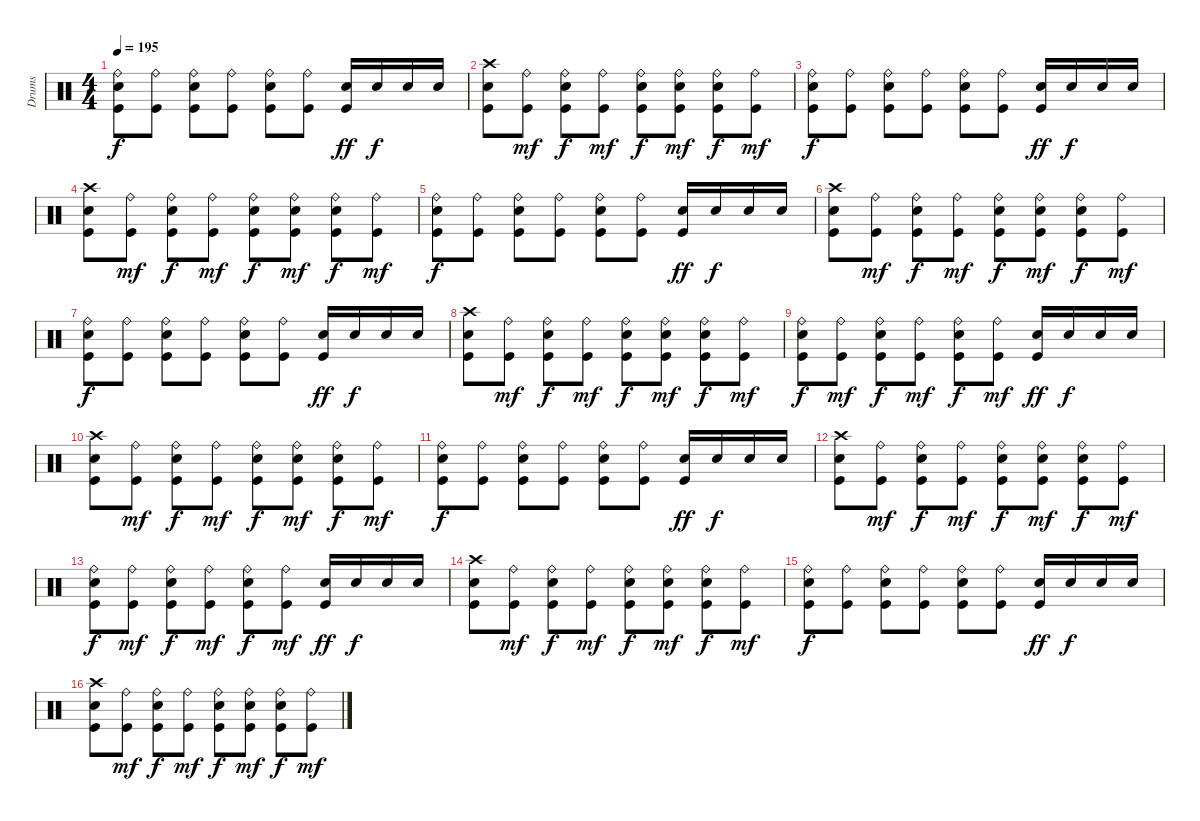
\track ("Drums" "Drums") {instrument percussion}
\staff {score}
\articulation defaults
\ts (4 4)
\tempo 195
\clef neutral
\ks c
("Ride (bell)" "Electric Snare (hit)" "Kick (hit)").8{dy f} ("Ride (bell)" "Kick (hit)").8 ("Ride (bell)" "Electric Snare (hit)" "Kick (hit)").8 ("Ride (bell)" "Kick (hit)").8 ("Ride (bell)" "Electric Snare (hit)" "Kick (hit)").8 ("Ride (bell)" "Kick (hit)").8 ("Electric Snare (hit)" "Kick (hit)").16{dy ff} "Electric Snare (hit)".16{dy f} "Electric Snare (hit)".16 "Electric Snare (hit)".16 |
("Crash high (hit)" "Electric Snare (hit)" "Kick (hit)").8 ("Ride (bell)" "Kick (hit)").8{dy mf} ("Ride (bell)" "Electric Snare (hit)" "Kick (hit)").8{dy f} ("Ride (bell)" "Kick (hit)").8{dy mf} ("Ride (bell)" "Electric Snare (hit)" "Kick (hit)").8{dy f} ("Ride (bell)" "Electric Snare (hit)" "Kick (hit)").8{dy mf} ("Ride (bell)" "Electric Snare (hit)" "Kick (hit)").8{dy f} ("Ride (bell)" "Kick (hit)").8{dy mf} |
("Ride (bell)" "Electric Snare (hit)" "Kick (hit)").8{dy f} ("Ride (bell)" "Kick (hit)").8 ("Ride (bell)" "Electric Snare (hit)" "Kick (hit)").8 ("Ride (bell)" "Kick (hit)").8 ("Ride (bell)" "Electric Snare (hit)" "Kick (hit)").8 ("Ride (bell)" "Kick (hit)").8 ("Electric Snare (hit)" "Kick (hit)").16{dy ff} "Electric Snare (hit)".16{dy f} "Electric Snare (hit)".16 "Electric Snare (hit)".16 |
("Crash high (hit)" "Electric Snare (hit)" "Kick (hit)").8 ("Ride (bell)" "Kick (hit)").8{dy mf} ("Ride (bell)" "Electric Snare (hit)" "Kick (hit)").8{dy f} ("Ride (bell)" "Kick (hit)").8{dy mf} ("Ride (bell)" "Electric Snare (hit)" "Kick (hit)").8{dy f} ("Ride (bell)" "Electric Snare (hit)" "Kick (hit)").8{dy mf} ("Ride (bell)" "Electric Snare (hit)" "Kick (hit)").8{dy f} ("Ride (bell)" "Kick (hit)").8{dy mf} |
("Ride (bell)" "Electric Snare (hit)" "Kick (hit)").8{dy f} ("Ride (bell)" "Kick (hit)").8 ("Ride (bell)" "Electric Snare (hit)" "Kick (hit)").8 ("Ride (bell)" "Kick (hit)").8 ("Ride (bell)" "Electric Snare (hit)" "Kick (hit)").8 ("Ride (bell)" "Kick (hit)").8 ("Electric Snare (hit)" "Kick (hit)").16{dy ff} "Electric Snare (hit)".16{dy f} "Electric Snare (hit)".16 "Electric Snare (hit)".16 |
("Crash high (hit)" "Electric Snare (hit)" "Kick (hit)").8 ("Ride (bell)" "Kick (hit)").8{dy mf} ("Ride (bell)" "Electric Snare (hit)" "Kick (hit)").8{dy f} ("Ride (bell)" "Kick (hit)").8{dy mf} ("Ride (bell)" "Electric Snare (hit)" "Kick (hit)").8{dy f} ("Ride (bell)" "Electric Snare (hit)" "Kick (hit)").8{dy mf} ("Ride (bell)" "Electric Snare (hit)" "Kick (hit)").8{dy f} ("Ride (bell)" "Kick (hit)").8{dy mf} |
("Ride (bell)" "Electric Snare (hit)" "Kick (hit)").8{dy f} ("Ride (bell)" "Kick (hit)").8 ("Ride (bell)" "Electric Snare (hit)" "Kick (hit)").8 ("Ride (bell)" "Kick (hit)").8 ("Ride (bell)" "Electric Snare (hit)" "Kick (hit)").8 ("Ride (bell)" "Kick (hit)").8 ("Electric Snare (hit)" "Kick (hit)").16{dy ff} "Electric Snare (hit)".16{dy f} "Electric Snare (hit)".16 "Electric Snare (hit)".16 |
("Crash high (hit)" "Electric Snare (hit)" "Kick (hit)").8 ("Ride (bell)" "Kick (hit)").8{dy mf} ("Ride (bell)" "Electric Snare (hit)" "Kick (hit)").8{dy f} ("Ride (bell)" "Kick (hit)").8{dy mf} ("Ride (bell)" "Electric Snare (hit)" "Kick (hit)").8{dy f} ("Ride (bell)" "Electric Snare (hit)" "Kick (hit)").8{dy mf} ("Ride (bell)" "Electric Snare (hit)" "Kick (hit)").8{dy f} ("Ride (bell)" "Kick (hit)").8{dy mf} |
("Ride (bell)" "Electric Snare (hit)" "Kick (hit)").8{dy f} ("Ride (bell)" "Kick (hit)").8{dy mf} ("Ride (bell)" "Electric Snare (hit)" "Kick (hit)").8{dy f} ("Ride (bell)" "Kick (hit)").8{dy mf} ("Ride (bell)" "Electric Snare (hit)" "Kick (hit)").8{dy f} ("Ride (bell)" "Kick (hit)").8{dy mf} ("Electric Snare (hit)" "Kick (hit)").16{dy ff} "Electric Snare (hit)".16{dy f} "Electric Snare (hit)".16 "Electric Snare (hit)".16 |
("Crash high (hit)" "Electric Snare (hit)" "Kick (hit)").8 ("Ride (bell)" "Kick (hit)").8{dy mf} ("Ride (bell)" "Electric Snare (hit)" "Kick (hit)").8{dy f} ("Ride (bell)" "Kick (hit)").8{dy mf} ("Ride (bell)" "Electric Snare (hit)" "Kick (hit)").8{dy f} ("Ride (bell)" "Electric Snare (hit)" "Kick (hit)").8{dy mf} ("Ride (bell)" "Electric Snare (hit)" "Kick (hit)").8{dy f} ("Ride (bell)" "Kick (hit)").8{dy mf} |
("Ride (bell)" "Electric Snare (hit)" "Kick (hit)").8{dy f} ("Ride (bell)" "Kick (hit)").8 ("Ride (bell)" "Electric Snare (hit)" "Kick (hit)").8 ("Ride (bell)" "Kick (hit)").8 ("Ride (bell)" "Electric Snare (hit)" "Kick (hit)").8 ("Ride (bell)" "Kick (hit)").8 ("Electric Snare (hit)" "Kick (hit)").16{dy ff} "Electric Snare (hit)".16{dy f} "Electric Snare (hit)".16 "Electric Snare (hit)".16 |
("Crash high (hit)" "Electric Snare (hit)" "Kick (hit)").8 ("Ride (bell)" "Kick (hit)").8{dy mf} ("Ride (bell)" "Electric Snare (hit)" "Kick (hit)").8{dy f} ("Ride (bell)" "Kick (hit)").8{dy mf} ("Ride (bell)" "Electric Snare (hit)" "Kick (hit)").8{dy f} ("Ride (bell)" "Electric Snare (hit)" "Kick (hit)").8{dy mf} ("Ride (bell)" "Electric Snare (hit)" "Kick (hit)").8{dy f} ("Ride (bell)" "Kick (hit)").8{dy mf} |
("Ride (bell)" "Electric Snare (hit)" "Kick (hit)").8{dy f} ("Ride (bell)" "Kick (hit)").8{dy mf} ("Ride (bell)" "Electric Snare (hit)" "Kick (hit)").8{dy f} ("Ride (bell)" "Kick (hit)").8{dy mf} ("Ride (bell)" "Electric Snare (hit)" "Kick (hit)").8{dy f} ("Ride (bell)" "Kick (hit)").8{dy mf} ("Electric Snare (hit)" "Kick (hit)").16{dy ff} "Electric Snare (hit)".16{dy f} "Electric Snare (hit)".16 "Electric Snare (hit)".16 |
("Crash high (hit)" "Electric Snare (hit)" "Kick (hit)").8 ("Ride (bell)" "Kick (hit)").8{dy mf} ("Ride (bell)" "Electric Snare (hit)" "Kick (hit)").8{dy f} ("Ride (bell)" "Kick (hit)").8{dy mf} ("Ride (bell)" "Electric Snare (hit)" "Kick (hit)").8{dy f} ("Ride (bell)" "Electric Snare (hit)" "Kick (hit)").8{dy mf} ("Ride (bell)" "Electric Snare (hit)" "Kick (hit)").8{dy f} ("Ride (bell)" "Kick (hit)").8{dy mf} |
("Ride (bell)" "Electric Snare (hit)" "Kick (hit)").8{dy f} ("Ride (bell)" "Kick (hit)").8 ("Ride (bell)" "Electric Snare (hit)" "Kick (hit)").8 ("Ride (bell)" "Kick (hit)").8 ("Ride (bell)" "Electric Snare (hit)" "Kick (hit)").8 ("Ride (bell)" "Kick (hit)").8 ("Electric Snare (hit)" "Kick (hit)").16{dy ff} "Electric Snare (hit)".16{dy f} "Electric Snare (hit)".16 "Electric Snare (hit)".16 |
("Crash high (hit)" "Electric Snare (hit)" "Kick (hit)").8 ("Ride (bell)" "Kick (hit)").8{dy mf} ("Ride (bell)" "Electric Snare (hit)" "Kick (hit)").8{dy f} ("Ride (bell)" "Kick (hit)").8{dy mf} ("Ride (bell)" "Electric Snare (hit)" "Kick (hit)").8{dy f} ("Ride (bell)" "Electric Snare (hit)" "Kick (hit)").8{dy mf} ("Ride (bell)" "Electric Snare (hit)" "Kick (hit)").8{dy f} ("Ride (bell)" "Kick (hit)").8{dy mf}
